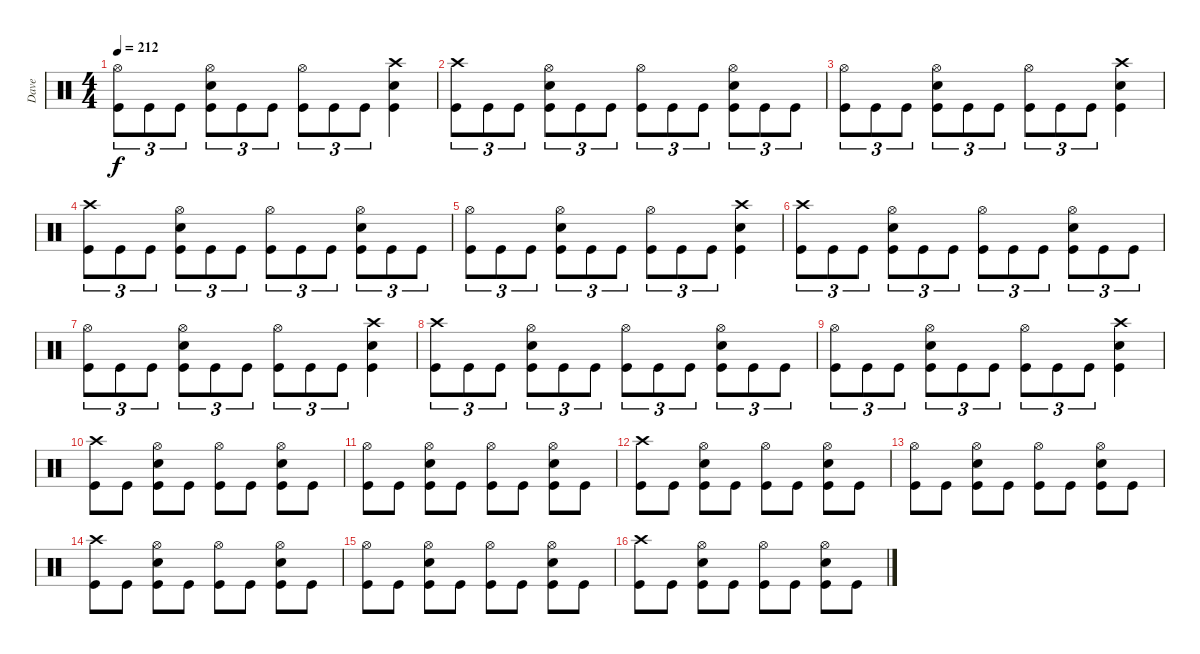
\track ("Dave" "Dave") {instrument percussion}
\staff {score}
\articulation defaults
\ts (4 4)
\tempo 212
\clef neutral
\ks c
("Hi-Hat (open)" "Kick (hit)").8{tu (3 2) dy f} "Kick (hit)".8{tu (3 2)} "Kick (hit)".8{tu (3 2)} ("Hi-Hat (open)" "Snare (hit) 2" "Kick (hit)").8{tu (3 2)} "Kick (hit)".8{tu (3 2)} "Kick (hit)".8{tu (3 2)} ("Hi-Hat (open)" "Kick (hit)").8{tu (3 2)} "Kick (hit)".8{tu (3 2)} "Kick (hit)".8{tu (3 2)} ("Crash high (hit)" "Snare (hit) 2" "Kick (hit)").4 |
("Crash high (hit)" "Kick (hit)").8{tu (3 2)} "Kick (hit)".8{tu (3 2)} "Kick (hit)".8{tu (3 2)} ("Hi-Hat (open)" "Snare (hit) 2" "Kick (hit)").8{tu (3 2)} "Kick (hit)".8{tu (3 2)} "Kick (hit)".8{tu (3 2)} ("Hi-Hat (open)" "Kick (hit)").8{tu (3 2)} "Kick (hit)".8{tu (3 2)} "Kick (hit)".8{tu (3 2)} ("Hi-Hat (open)" "Snare (hit) 2" "Kick (hit)").8{tu (3 2)} "Kick (hit)".8{tu (3 2)} "Kick (hit)".8{tu (3 2)} |
("Hi-Hat (open)" "Kick (hit)").8{tu (3 2)} "Kick (hit)".8{tu (3 2)} "Kick (hit)".8{tu (3 2)} ("Hi-Hat (open)" "Snare (hit) 2" "Kick (hit)").8{tu (3 2)} "Kick (hit)".8{tu (3 2)} "Kick (hit)".8{tu (3 2)} ("Hi-Hat (open)" "Kick (hit)").8{tu (3 2)} "Kick (hit)".8{tu (3 2)} "Kick (hit)".8{tu (3 2)} ("Crash high (hit)" "Snare (hit) 2" "Kick (hit)").4 |
("Crash high (hit)" "Kick (hit)").8{tu (3 2)} "Kick (hit)".8{tu (3 2)} "Kick (hit)".8{tu (3 2)} ("Hi-Hat (open)" "Snare (hit) 2" "Kick (hit)").8{tu (3 2)} "Kick (hit)".8{tu (3 2)} "Kick (hit)".8{tu (3 2)} ("Hi-Hat (open)" "Kick (hit)").8{tu (3 2)} "Kick (hit)".8{tu (3 2)} "Kick (hit)".8{tu (3 2)} ("Hi-Hat (open)" "Snare (hit) 2" "Kick (hit)").8{tu (3 2)} "Kick (hit)".8{tu (3 2)} "Kick (hit)".8{tu (3 2)} |
("Hi-Hat (open)" "Kick (hit)").8{tu (3 2)} "Kick (hit)".8{tu (3 2)} "Kick (hit)".8{tu (3 2)} ("Hi-Hat (open)" "Snare (hit) 2" "Kick (hit)").8{tu (3 2)} "Kick (hit)".8{tu (3 2)} "Kick (hit)".8{tu (3 2)} ("Hi-Hat (open)" "Kick (hit)").8{tu (3 2)} "Kick (hit)".8{tu (3 2)} "Kick (hit)".8{tu (3 2)} ("Crash high (hit)" "Snare (hit) 2" "Kick (hit)").4 |
("Crash high (hit)" "Kick (hit)").8{tu (3 2)} "Kick (hit)".8{tu (3 2)} "Kick (hit)".8{tu (3 2)} ("Hi-Hat (open)" "Snare (hit) 2" "Kick (hit)").8{tu (3 2)} "Kick (hit)".8{tu (3 2)} "Kick (hit)".8{tu (3 2)} ("Hi-Hat (open)" "Kick (hit)").8{tu (3 2)} "Kick (hit)".8{tu (3 2)} "Kick (hit)".8{tu (3 2)} ("Hi-Hat (open)" "Snare (hit) 2" "Kick (hit)").8{tu (3 2)} "Kick (hit)".8{tu (3 2)} "Kick (hit)".8{tu (3 2)} |
("Hi-Hat (open)" "Kick (hit)").8{tu (3 2)} "Kick (hit)".8{tu (3 2)} "Kick (hit)".8{tu (3 2)} ("Hi-Hat (open)" "Snare (hit) 2" "Kick (hit)").8{tu (3 2)} "Kick (hit)".8{tu (3 2)} "Kick (hit)".8{tu (3 2)} ("Hi-Hat (open)" "Kick (hit)").8{tu (3 2)} "Kick (hit)".8{tu (3 2)} "Kick (hit)".8{tu (3 2)} ("Crash high (hit)" "Snare (hit) 2" "Kick (hit)").4 |
("Crash high (hit)" "Kick (hit)").8{tu (3 2)} "Kick (hit)".8{tu (3 2)} "Kick (hit)".8{tu (3 2)} ("Hi-Hat (open)" "Snare (hit) 2" "Kick (hit)").8{tu (3 2)} "Kick (hit)".8{tu (3 2)} "Kick (hit)".8{tu (3 2)} ("Hi-Hat (open)" "Kick (hit)").8{tu (3 2)} "Kick (hit)".8{tu (3 2)} "Kick (hit)".8{tu (3 2)} ("Hi-Hat (open)" "Snare (hit) 2" "Kick (hit)").8{tu (3 2)} "Kick (hit)".8{tu (3 2)} "Kick (hit)".8{tu (3 2)} |
("Hi-Hat (open)" "Kick (hit)").8{tu (3 2)} "Kick (hit)".8{tu (3 2)} "Kick (hit)".8{tu (3 2)} ("Hi-Hat (open)" "Snare (hit) 2" "Kick (hit)").8{tu (3 2)} "Kick (hit)".8{tu (3 2)} "Kick (hit)".8{tu (3 2)} ("Hi-Hat (open)" "Kick (hit)").8{tu (3 2)} "Kick (hit)".8{tu (3 2)} "Kick (hit)".8{tu (3 2)} ("Crash high (hit)" "Snare (hit) 2" "Kick (hit)").4 |
("Crash high (hit)" "Kick (hit)").8 "Kick (hit)".8 ("Hi-Hat (open)" "Snare (hit) 2" "Kick (hit)").8 "Kick (hit)".8 ("Hi-Hat (open)" "Kick (hit)").8 "Kick (hit)".8 ("Hi-Hat (open)" "Snare (hit) 2" "Kick (hit)").8 "Kick (hit)".8 |
("Hi-Hat (open)" "Kick (hit)").8 "Kick (hit)".8 ("Hi-Hat (open)" "Snare (hit) 2" "Kick (hit)").8 "Kick (hit)".8 ("Hi-Hat (open)" "Kick (hit)").8 "Kick (hit)".8 ("Hi-Hat (open)" "Snare (hit) 2" "Kick (hit)").8 "Kick (hit)".8 |
("Crash high (hit)" "Kick (hit)").8 "Kick (hit)".8 ("Hi-Hat (open)" "Snare (hit) 2" "Kick (hit)").8 "Kick (hit)".8 ("Hi-Hat (open)" "Kick (hit)").8 "Kick (hit)".8 ("Hi-Hat (open)" "Snare (hit) 2" "Kick (hit)").8 "Kick (hit)".8 |
("Hi-Hat (open)" "Kick (hit)").8 "Kick (hit)".8 ("Hi-Hat (open)" "Snare (hit) 2" "Kick (hit)").8 "Kick (hit)".8 ("Hi-Hat (open)" "Kick (hit)").8 "Kick (hit)".8 ("Hi-Hat (open)" "Snare (hit) 2" "Kick (hit)").8 "Kick (hit)".8 |
("Crash high (hit)" "Kick (hit)").8 "Kick (hit)".8 ("Hi-Hat (open)" "Snare (hit) 2" "Kick (hit)").8 "Kick (hit)".8 ("Hi-Hat (open)" "Kick (hit)").8 "Kick (hit)".8 ("Hi-Hat (open)" "Snare (hit) 2" "Kick (hit)").8 "Kick (hit)".8 |
("Hi-Hat (open)" "Kick (hit)").8 "Kick (hit)".8 ("Hi-Hat (open)" "Snare (hit) 2" "Kick (hit)").8 "Kick (hit)".8 ("Hi-Hat (open)" "Kick (hit)").8 "Kick (hit)".8 ("Hi-Hat (open)" "Snare (hit) 2" "Kick (hit)").8 "Kick (hit)".8 |
("Crash high (hit)" "Kick (hit)").8 "Kick (hit)".8 ("Hi-Hat (open)" "Snare (hit) 2" "Kick (hit)").8 "Kick (hit)".8 ("Hi-Hat (open)" "Kick (hit)").8 "Kick (hit)".8 ("Hi-Hat (open)" "Snare (hit) 2" "Kick (hit)").8 "Kick (hit)".8
